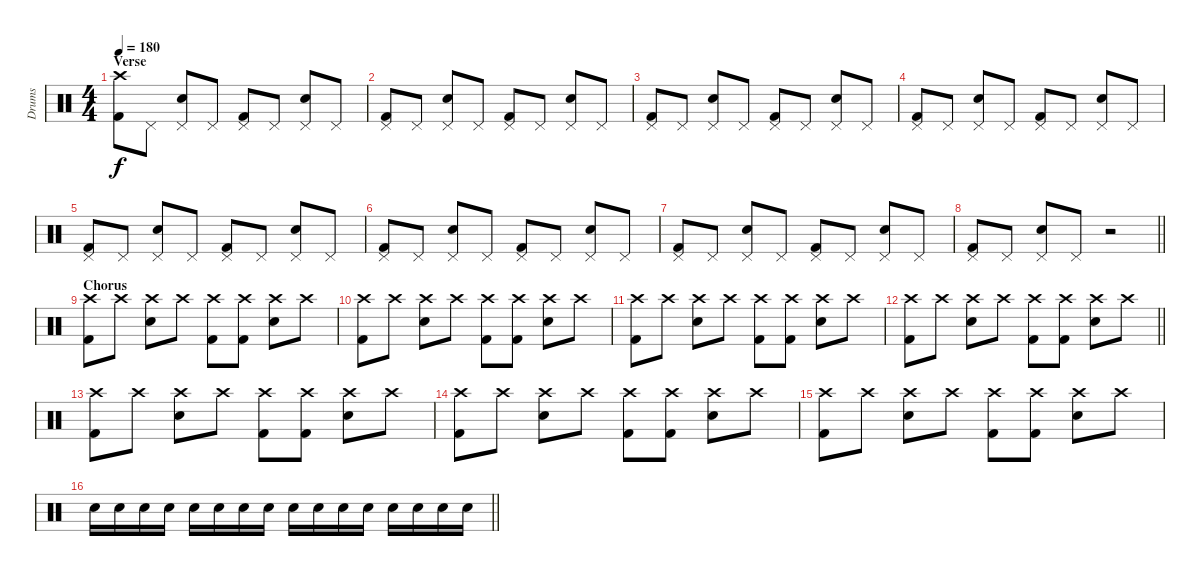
\track ("Drums" "Drums") {instrument percussion}
\staff {score}
\articulation defaults
\ts (4 4)
\section ("" "Verse")
\tempo 180
\clef neutral
\ks c
("Crash high (hit)" "Kick (hit) 2").8{dy f} "Pedal Hi-Hat (hit)".8 ("Pedal Hi-Hat (hit)" "Snare (hit) 2").8 "Pedal Hi-Hat (hit)".8 ("Pedal Hi-Hat (hit)" "Kick (hit) 2").8 "Pedal Hi-Hat (hit)".8 ("Pedal Hi-Hat (hit)" "Snare (hit) 2").8 "Pedal Hi-Hat (hit)".8 |
("Pedal Hi-Hat (hit)" "Kick (hit) 2").8 "Pedal Hi-Hat (hit)".8 ("Pedal Hi-Hat (hit)" "Snare (hit) 2").8 "Pedal Hi-Hat (hit)".8 ("Pedal Hi-Hat (hit)" "Kick (hit) 2").8 "Pedal Hi-Hat (hit)".8 ("Pedal Hi-Hat (hit)" "Snare (hit) 2").8 "Pedal Hi-Hat (hit)".8 |
("Pedal Hi-Hat (hit)" "Kick (hit) 2").8 "Pedal Hi-Hat (hit)".8 ("Pedal Hi-Hat (hit)" "Snare (hit) 2").8 "Pedal Hi-Hat (hit)".8 ("Pedal Hi-Hat (hit)" "Kick (hit) 2").8 "Pedal Hi-Hat (hit)".8 ("Pedal Hi-Hat (hit)" "Snare (hit) 2").8 "Pedal Hi-Hat (hit)".8 |
("Pedal Hi-Hat (hit)" "Kick (hit) 2").8 "Pedal Hi-Hat (hit)".8 ("Pedal Hi-Hat (hit)" "Snare (hit) 2").8 "Pedal Hi-Hat (hit)".8 ("Pedal Hi-Hat (hit)" "Kick (hit) 2").8 "Pedal Hi-Hat (hit)".8 ("Pedal Hi-Hat (hit)" "Snare (hit) 2").8 "Pedal Hi-Hat (hit)".8 |
("Pedal Hi-Hat (hit)" "Kick (hit) 2").8 "Pedal Hi-Hat (hit)".8 ("Pedal Hi-Hat (hit)" "Snare (hit) 2").8 "Pedal Hi-Hat (hit)".8 ("Pedal Hi-Hat (hit)" "Kick (hit) 2").8 "Pedal Hi-Hat (hit)".8 ("Pedal Hi-Hat (hit)" "Snare (hit) 2").8 "Pedal Hi-Hat (hit)".8 |
("Pedal Hi-Hat (hit)" "Kick (hit) 2").8 "Pedal Hi-Hat (hit)".8 ("Pedal Hi-Hat (hit)" "Snare (hit) 2").8 "Pedal Hi-Hat (hit)".8 ("Pedal Hi-Hat (hit)" "Kick (hit) 2").8 "Pedal Hi-Hat (hit)".8 ("Pedal Hi-Hat (hit)" "Snare (hit) 2").8 "Pedal Hi-Hat (hit)".8 |
("Pedal Hi-Hat (hit)" "Kick (hit) 2").8 "Pedal Hi-Hat (hit)".8 ("Pedal Hi-Hat (hit)" "Snare (hit) 2").8 "Pedal Hi-Hat (hit)".8 ("Pedal Hi-Hat (hit)" "Kick (hit) 2").8 "Pedal Hi-Hat (hit)".8 ("Pedal Hi-Hat (hit)" "Snare (hit) 2").8 "Pedal Hi-Hat (hit)".8 |
\barLineRight lightlight
("Pedal Hi-Hat (hit)" "Kick (hit) 2").8 "Pedal Hi-Hat (hit)".8 ("Pedal Hi-Hat (hit)" "Snare (hit) 2").8 "Pedal Hi-Hat (hit)".8 r.2 |
\section ("" "Chorus")
("Crash high (hit)" "Kick (hit) 2").8 "Crash high (hit)".8 ("Crash high (hit)" "Snare (hit) 2").8 "Crash high (hit)".8 ("Crash high (hit)" "Kick (hit) 2").8 ("Crash high (hit)" "Kick (hit) 2").8 ("Crash high (hit)" "Snare (hit) 2").8 "Crash high (hit)".8 |
("Crash high (hit)" "Kick (hit) 2").8 "Crash high (hit)".8 ("Crash high (hit)" "Snare (hit) 2").8 "Crash high (hit)".8 ("Crash high (hit)" "Kick (hit) 2").8 ("Crash high (hit)" "Kick (hit) 2").8 ("Crash high (hit)" "Snare (hit) 2").8 "Crash high (hit)".8 |
("Crash high (hit)" "Kick (hit) 2").8 "Crash high (hit)".8 ("Crash high (hit)" "Snare (hit) 2").8 "Crash high (hit)".8 ("Crash high (hit)" "Kick (hit) 2").8 ("Crash high (hit)" "Kick (hit) 2").8 ("Crash high (hit)" "Snare (hit) 2").8 "Crash high (hit)".8 |
\barLineRight lightlight
("Crash high (hit)" "Kick (hit) 2").8 "Crash high (hit)".8 ("Crash high (hit)" "Snare (hit) 2").8 "Crash high (hit)".8 ("Crash high (hit)" "Kick (hit) 2").8 ("Crash high (hit)" "Kick (hit) 2").8 ("Crash high (hit)" "Snare (hit) 2").8 "Crash high (hit)".8 |
("Crash high (hit)" "Kick (hit) 2").8 "Crash high (hit)".8 ("Crash high (hit)" "Snare (hit) 2").8 "Crash high (hit)".8 ("Crash high (hit)" "Kick (hit) 2").8 ("Crash high (hit)" "Kick (hit) 2").8 ("Crash high (hit)" "Snare (hit) 2").8 "Crash high (hit)".8 |
("Crash high (hit)" "Kick (hit) 2").8 "Crash high (hit)".8 ("Crash high (hit)" "Snare (hit) 2").8 "Crash high (hit)".8 ("Crash high (hit)" "Kick (hit) 2").8 ("Crash high (hit)" "Kick (hit) 2").8 ("Crash high (hit)" "Snare (hit) 2").8 "Crash high (hit)".8 |
("Crash high (hit)" "Kick (hit) 2").8 "Crash high (hit)".8 ("Crash high (hit)" "Snare (hit) 2").8 "Crash high (hit)".8 ("Crash high (hit)" "Kick (hit) 2").8 ("Crash high (hit)" "Kick (hit) 2").8 ("Crash high (hit)" "Snare (hit) 2").8 "Crash high (hit)".8 |
\barLineRight lightlight "Snare (hit) 2".16 "Snare (hit) 2".16 "Snare (hit) 2".16 "Snare (hit) 2".16 "Snare (hit) 2".16 "Snare (hit) 2".16 "Snare (hit) 2".16 "Snare (hit) 2".16 "Snare (hit) 2".16 "Snare (hit) 2".16 "Snare (hit) 2".16 "Snare (hit) 2".16 "Snare (hit) 2".16 "Snare (hit) 2".16 "Snare (hit) 2".16 "Snare (hit) 2".16
